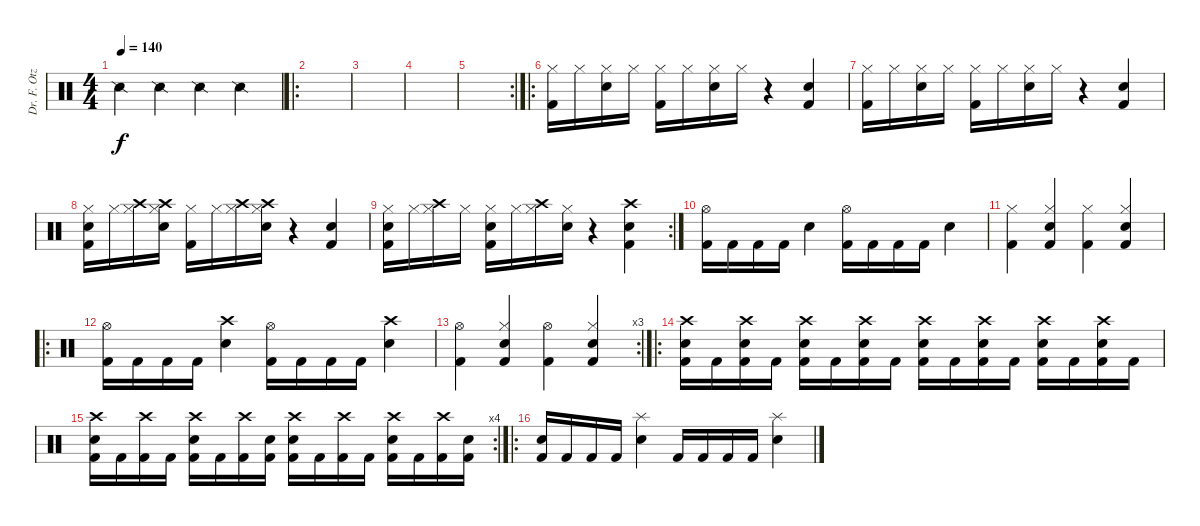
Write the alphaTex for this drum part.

\track ("Dr. F. Otze" "Dr. F. Otz") {instrument percussion}
\staff {score}
\articulation defaults
\ts (4 4)
\tempo 140
\clef neutral
\ks c "Snare (side stick) 2".4{dy f} "Snare (side stick) 2".4 "Snare (side stick) 2".4 "Snare (side stick) 2".4
|
\ro
|
|
|
\rc 2
|
\ro
("Kick (hit) 2" "Hi-Hat (closed)").16 "Hi-Hat (closed)".16 ("Snare (hit) 2" "Hi-Hat (closed)").16 "Hi-Hat (closed)".16 ("Kick (hit) 2" "Hi-Hat (closed)").16 "Hi-Hat (closed)".16 ("Snare (hit) 2" "Hi-Hat (closed)").16 "Hi-Hat (closed)".16 r.4 ("Snare (hit) 2" "Kick (hit) 2").4 |
("Kick (hit) 2" "Hi-Hat (closed)").16 "Hi-Hat (closed)".16 ("Snare (hit) 2" "Hi-Hat (closed)").16 "Hi-Hat (closed)".16 ("Kick (hit) 2" "Hi-Hat (closed)").16 "Hi-Hat (closed)".16 ("Snare (hit) 2" "Hi-Hat (closed)").16 "Hi-Hat (closed)".16 r.4 ("Snare (hit) 2" "Kick (hit) 2").4 |
("Kick (hit) 2" "Snare (hit) 2" "Hi-Hat (closed)").16 "Hi-Hat (closed)".16 ("Crash high (hit)" "Hi-Hat (closed)").16 ("Crash high (hit)" "Snare (hit) 2" "Hi-Hat (closed)").16 ("Kick (hit) 2" "Hi-Hat (closed)").16 "Hi-Hat (closed)".16 ("Crash high (hit)" "Hi-Hat (closed)").16 ("Crash high (hit)" "Snare (hit) 2" "Hi-Hat (closed)").16 r.4 ("Snare (hit) 2" "Kick (hit) 2").4 |
\rc 2
("Kick (hit) 2" "Snare (hit) 2" "Hi-Hat (closed)").16 "Hi-Hat (closed)".16 ("Crash high (hit)" "Hi-Hat (closed)").16 "Hi-Hat (closed)".16 ("Kick (hit) 2" "Snare (hit) 2" "Hi-Hat (closed)").16 "Hi-Hat (closed)".16 ("Crash high (hit)" "Hi-Hat (closed)").16 ("Snare (hit) 2" "Hi-Hat (closed)").16 r.4 ("Crash high (hit)" "Snare (hit) 2" "Kick (hit) 2").4 |
("Hi-Hat (open)" "Kick (hit) 2").16 "Kick (hit) 2".16 "Kick (hit) 2".16 "Kick (hit) 2".16 "Snare (hit) 2".4 ("Hi-Hat (open)" "Kick (hit) 2").16 "Kick (hit) 2".16 "Kick (hit) 2".16 "Kick (hit) 2".16 "Snare (hit) 2".4 |
("Hi-Hat (closed)" "Kick (hit) 2").4 ("Hi-Hat (closed)" "Snare (hit) 2" "Kick (hit) 2").4 ("Hi-Hat (closed)" "Kick (hit) 2").4 ("Hi-Hat (closed)" "Snare (hit) 2" "Kick (hit) 2").4 |
\ro
("Hi-Hat (open)" "Kick (hit) 2").16 "Kick (hit) 2".16 "Kick (hit) 2".16 "Kick (hit) 2".16 ("Crash high (hit)" "Snare (hit) 2").4 ("Hi-Hat (open)" "Kick (hit) 2").16 "Kick (hit) 2".16 "Kick (hit) 2".16 "Kick (hit) 2".16 ("Crash high (hit)" "Snare (hit) 2").4 |
\rc 3
("Hi-Hat (open)" "Kick (hit) 2").4 ("Hi-Hat (closed)" "Snare (hit) 2" "Kick (hit) 2").4 ("Hi-Hat (open)" "Kick (hit) 2").4 ("Hi-Hat (closed)" "Snare (hit) 2" "Kick (hit) 2").4 |
\ro
("Crash high (hit)" "Snare (hit) 2" "Kick (hit) 2").16 "Kick (hit) 2".16 ("Crash high (hit)" "Snare (hit) 2" "Kick (hit) 2").16 "Kick (hit) 2".16 ("Crash high (hit)" "Snare (hit) 2" "Kick (hit) 2").16 "Kick (hit) 2".16 ("Crash high (hit)" "Snare (hit) 2" "Kick (hit) 2").16 "Kick (hit) 2".16 ("Crash high (hit)" "Snare (hit) 2" "Kick (hit) 2").16 "Kick (hit) 2".16 ("Crash high (hit)" "Snare (hit) 2" "Kick (hit) 2").16 "Kick (hit) 2".16 ("Crash high (hit)" "Snare (hit) 2" "Kick (hit) 2").16 "Kick (hit) 2".16 ("Crash high (hit)" "Snare (hit) 2" "Kick (hit) 2").16 "Kick (hit) 2".16 |
\rc 4
("Crash high (hit)" "Electric Snare (hit)" "Kick (hit) 2").16 "Kick (hit) 2".16 ("Crash high (hit)" "Kick (hit) 2").16 "Kick (hit) 2".16 ("Crash high (hit)" "Electric Snare (hit)" "Kick (hit) 2").16 "Kick (hit) 2".16 ("Crash high (hit)" "Kick (hit) 2").16 ("Electric Snare (hit)" "Kick (hit) 2").16 ("Crash high (hit)" "Electric Snare (hit)" "Kick (hit) 2").16 "Kick (hit) 2".16 ("Crash high (hit)" "Kick (hit) 2").16 "Kick (hit) 2".16 ("Crash high (hit)" "Electric Snare (hit)" "Kick (hit) 2").16 "Kick (hit) 2".16 ("Crash high (hit)" "Kick (hit) 2").16 ("Electric Snare (hit)" "Kick (hit) 2").16 |
\ro
("Snare (hit) 2" "Kick (hit) 2").16 "Kick (hit) 2".16 "Kick (hit) 2".16 "Kick (hit) 2".16 ("Splash (hit)" "Snare (hit) 2").4 "Kick (hit) 2".16 "Kick (hit) 2".16 "Kick (hit) 2".16 "Kick (hit) 2".16 ("Splash (hit)" "Snare (hit) 2").4
